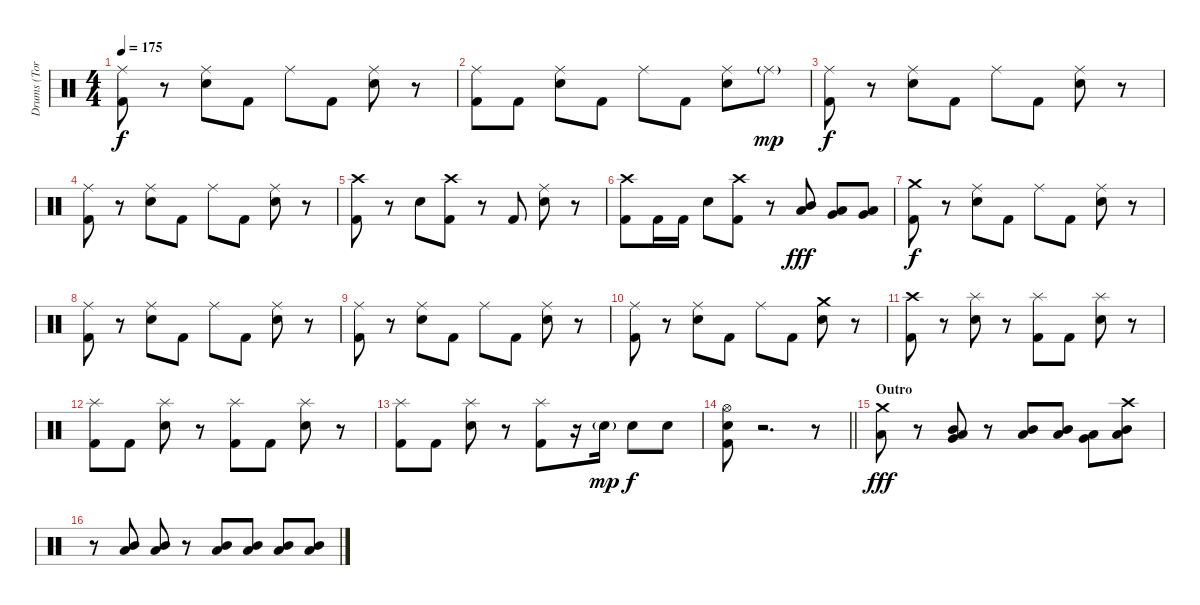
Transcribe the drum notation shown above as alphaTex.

\track ("Drums (Tora)" "Drums (Tor") {instrument percussion}
\staff {score}
\articulation defaults
\ts (4 4)
\tempo 175
\clef neutral
\ks c
("Ride (middle)" "Kick (hit) 2").8{dy f} r.8 ("Ride (middle)" "Electric Snare (hit)").8 "Kick (hit) 2".8 "Ride (middle)".8 "Kick (hit) 2".8 ("Ride (middle)" "Electric Snare (hit)").8 r.8 |
("Ride (middle)" "Kick (hit) 2").8 "Kick (hit) 2".8 ("Ride (middle)" "Electric Snare (hit)").8 "Kick (hit) 2".8 "Ride (middle)".8 "Kick (hit) 2".8 ("Ride (middle)" "Electric Snare (hit)").8 "Ride (middle)"{g}.8{dy mp} |
("Ride (middle)" "Kick (hit) 2").8{dy f} r.8 ("Ride (middle)" "Electric Snare (hit)").8 "Kick (hit) 2".8 "Ride (middle)".8 "Kick (hit) 2".8 ("Ride (middle)" "Electric Snare (hit)").8 r.8 |
("Ride (middle)" "Kick (hit) 2").8 r.8 ("Ride (middle)" "Electric Snare (hit)").8 "Kick (hit) 2".8 "Ride (middle)".8 "Kick (hit) 2".8 ("Ride (middle)" "Electric Snare (hit)").8 r.8 |
("Crash high (hit)" "Kick (hit) 2").8 r.8 "Electric Snare (hit)".8 ("Crash high (hit)" "Kick (hit) 2").8 r.8 "Kick (hit) 2".8 ("Ride (middle)" "Electric Snare (hit)").8 r.8 |
("Crash high (hit)" "Kick (hit) 2").8 "Kick (hit) 2".16 "Kick (hit) 2".16 "Electric Snare (hit)".8 ("Crash high (hit)" "Kick (hit) 2").8 r.8 ("Mid Tom (hit)" "Low Tom (hit)").8{dy fff} ("Low Tom (hit)" "Very Low Tom (hit)").8 ("Very Low Tom (hit)" "Low Floor Tom (hit)").8 |
("Crash medium (hit)" "Kick (hit) 2").8{dy f} r.8 ("Ride (middle)" "Electric Snare (hit)").8 "Kick (hit) 2".8 "Ride (middle)".8 "Kick (hit) 2".8 ("Ride (middle)" "Electric Snare (hit)").8 r.8 |
("Ride (middle)" "Kick (hit) 2").8 r.8 ("Ride (middle)" "Electric Snare (hit)").8 "Kick (hit) 2".8 "Ride (middle)".8 "Kick (hit) 2".8 ("Ride (middle)" "Electric Snare (hit)").8 r.8 |
("Ride (middle)" "Kick (hit) 2").8 r.8 ("Ride (middle)" "Electric Snare (hit)").8 "Kick (hit) 2".8 "Ride (middle)".8 "Kick (hit) 2".8 ("Ride (middle)" "Electric Snare (hit)").8 r.8 |
("Ride (middle)" "Kick (hit) 2").8 r.8 ("Ride (middle)" "Electric Snare (hit)").8 "Kick (hit) 2".8 "Ride (middle)".8 "Kick (hit) 2".8 ("Crash medium (hit)" "Electric Snare (hit)").8 r.8 |
("Crash high (hit)" "Kick (hit) 2").8 r.8 ("Splash (hit)" "Electric Snare (hit)").8 r.8 ("Splash (hit)" "Kick (hit) 2").8 "Kick (hit) 2".8 ("Splash (hit)" "Electric Snare (hit)").8 r.8 |
("Splash (hit)" "Kick (hit) 2").8 "Kick (hit) 2".8 ("Splash (hit)" "Electric Snare (hit)").8 r.8 ("Splash (hit)" "Kick (hit) 2").8 "Kick (hit) 2".8 ("Splash (hit)" "Electric Snare (hit)").8 r.8 |
("Splash (hit)" "Kick (hit) 2").8 "Kick (hit) 2".8 ("Splash (hit)" "Electric Snare (hit)").8 r.8 ("Splash (hit)" "Kick (hit) 2").8 r.16 "Electric Snare (hit)"{g}.16{dy mp} "Electric Snare (hit)".8{dy f} "Electric Snare (hit)".8 |
\barLineRight lightlight
("Hi-Hat (open)" "Electric Snare (hit)" "Kick (hit) 2").8 r.2{d} r.8 |
\section ("" "Outro")
("Crash medium (hit)" "Low Tom (hit)").8{dy fff} r.8 ("Mid Tom (hit)" "Low Tom (hit)" "Very Low Tom (hit)").8 r.8 ("Mid Tom (hit)" "Low Tom (hit)").8 ("Mid Tom (hit)" "Low Tom (hit)").8 ("Very Low Tom (hit)" "Low Floor Tom (hit)").8 ("Crash high (hit)" "Mid Tom (hit)" "Low Tom (hit)").8 |
r.8 ("Mid Tom (hit)" "Low Tom (hit)").8 ("Mid Tom (hit)" "Low Tom (hit)").8 r.8 ("Mid Tom (hit)" "Low Tom (hit)").8 ("Mid Tom (hit)" "Low Tom (hit)").8 ("Mid Tom (hit)" "Low Tom (hit)").8 ("Mid Tom (hit)" "Low Tom (hit)").8
